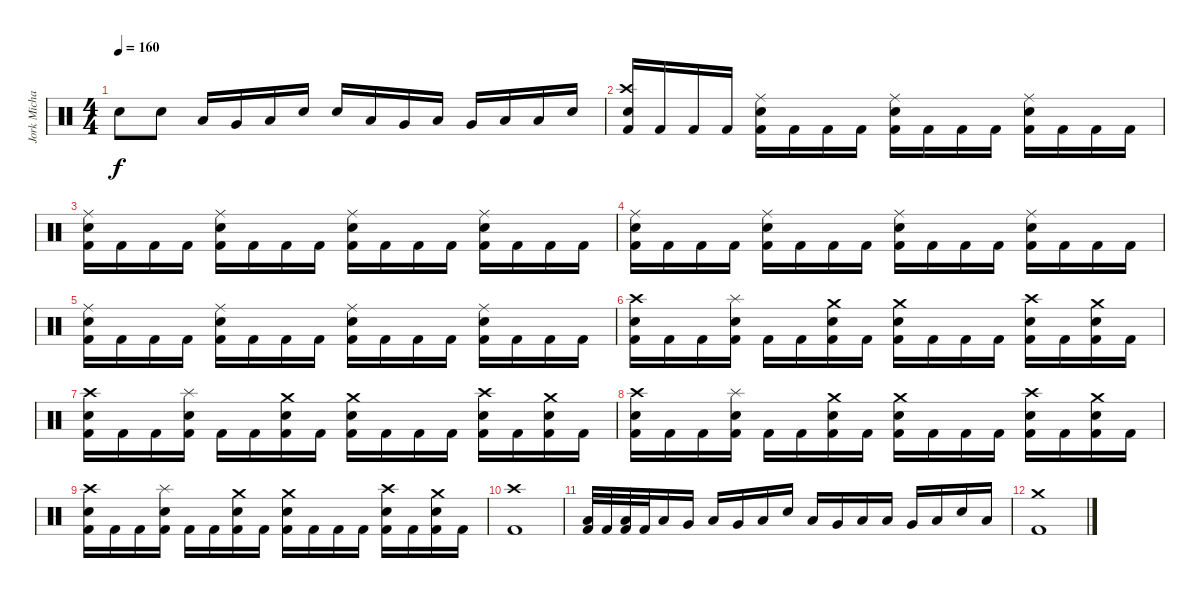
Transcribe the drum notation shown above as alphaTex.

\track ("Jork Michael" "Jork Micha") {instrument percussion}
\staff {score}
\articulation defaults
\ts (4 4)
\tempo 160
\clef neutral
\ks c "Electric Snare (hit)".8{dy f} "Electric Snare (hit)".8 "Low Floor Tom (hit)".16 "Very Low Tom (hit)".16 "Low Floor Tom (hit)".16 "Electric Snare (hit)".16 "Electric Snare (hit)".16 "Low Floor Tom (hit)".16 "Very Low Tom (hit)".16 "Low Tom (hit)".16 "Very Low Tom (hit)".16 "Low Tom (hit)".16 "Low Floor Tom (hit)".16 "Electric Snare (hit)".16
|
("Crash high (hit)" "Electric Snare (hit)" "Kick (hit) 2").16 "Kick (hit) 2".16 "Kick (hit) 2".16 "Kick (hit) 2".16 ("Ride (middle)" "Electric Snare (hit)" "Kick (hit) 2").16 "Kick (hit) 2".16 "Kick (hit) 2".16 "Kick (hit) 2".16 ("Ride (middle)" "Electric Snare (hit)" "Kick (hit) 2").16 "Kick (hit) 2".16 "Kick (hit) 2".16 "Kick (hit) 2".16 ("Ride (middle)" "Electric Snare (hit)" "Kick (hit) 2").16 "Kick (hit) 2".16 "Kick (hit) 2".16 "Kick (hit) 2".16 |
("Ride (middle)" "Electric Snare (hit)" "Kick (hit) 2").16 "Kick (hit) 2".16 "Kick (hit) 2".16 "Kick (hit) 2".16 ("Ride (middle)" "Electric Snare (hit)" "Kick (hit) 2").16 "Kick (hit) 2".16 "Kick (hit) 2".16 "Kick (hit) 2".16 ("Ride (middle)" "Electric Snare (hit)" "Kick (hit) 2").16 "Kick (hit) 2".16 "Kick (hit) 2".16 "Kick (hit) 2".16 ("Ride (middle)" "Electric Snare (hit)" "Kick (hit) 2").16 "Kick (hit) 2".16 "Kick (hit) 2".16 "Kick (hit) 2".16 |
("Ride (middle)" "Electric Snare (hit)" "Kick (hit) 2").16 "Kick (hit) 2".16 "Kick (hit) 2".16 "Kick (hit) 2".16 ("Ride (middle)" "Electric Snare (hit)" "Kick (hit) 2").16 "Kick (hit) 2".16 "Kick (hit) 2".16 "Kick (hit) 2".16 ("Ride (middle)" "Electric Snare (hit)" "Kick (hit) 2").16 "Kick (hit) 2".16 "Kick (hit) 2".16 "Kick (hit) 2".16 ("Ride (middle)" "Electric Snare (hit)" "Kick (hit) 2").16 "Kick (hit) 2".16 "Kick (hit) 2".16 "Kick (hit) 2".16 |
("Ride (middle)" "Electric Snare (hit)" "Kick (hit) 2").16 "Kick (hit) 2".16 "Kick (hit) 2".16 "Kick (hit) 2".16 ("Ride (middle)" "Electric Snare (hit)" "Kick (hit) 2").16 "Kick (hit) 2".16 "Kick (hit) 2".16 "Kick (hit) 2".16 ("Ride (middle)" "Electric Snare (hit)" "Kick (hit) 2").16 "Kick (hit) 2".16 "Kick (hit) 2".16 "Kick (hit) 2".16 ("Ride (middle)" "Electric Snare (hit)" "Kick (hit) 2").16 "Kick (hit) 2".16 "Kick (hit) 2".16 "Kick (hit) 2".16 |
("Crash high (hit)" "Electric Snare (hit)" "Kick (hit) 2").16 "Kick (hit) 2".16 "Kick (hit) 2".16 ("Splash (hit)" "Electric Snare (hit)" "Kick (hit) 2").16 "Kick (hit) 2".16 "Kick (hit) 2".16 ("Crash medium (hit)" "Electric Snare (hit)" "Kick (hit) 2").16 "Kick (hit) 2".16 ("Crash medium (hit)" "Electric Snare (hit)" "Kick (hit) 2").16 "Kick (hit) 2".16 "Kick (hit) 2".16 "Kick (hit) 2".16 ("Crash high (hit)" "Electric Snare (hit)" "Kick (hit) 2").16 "Kick (hit) 2".16 ("Crash medium (hit)" "Electric Snare (hit)" "Kick (hit) 2").16 "Kick (hit) 2".16 |
("Crash high (hit)" "Electric Snare (hit)" "Kick (hit) 2").16 "Kick (hit) 2".16 "Kick (hit) 2".16 ("Splash (hit)" "Electric Snare (hit)" "Kick (hit) 2").16 "Kick (hit) 2".16 "Kick (hit) 2".16 ("Crash medium (hit)" "Electric Snare (hit)" "Kick (hit) 2").16 "Kick (hit) 2".16 ("Crash medium (hit)" "Electric Snare (hit)" "Kick (hit) 2").16 "Kick (hit) 2".16 "Kick (hit) 2".16 "Kick (hit) 2".16 ("Crash high (hit)" "Electric Snare (hit)" "Kick (hit) 2").16 "Kick (hit) 2".16 ("Crash medium (hit)" "Electric Snare (hit)" "Kick (hit) 2").16 "Kick (hit) 2".16 |
("Crash high (hit)" "Electric Snare (hit)" "Kick (hit) 2").16 "Kick (hit) 2".16 "Kick (hit) 2".16 ("Splash (hit)" "Electric Snare (hit)" "Kick (hit) 2").16 "Kick (hit) 2".16 "Kick (hit) 2".16 ("Crash medium (hit)" "Electric Snare (hit)" "Kick (hit) 2").16 "Kick (hit) 2".16 ("Crash medium (hit)" "Electric Snare (hit)" "Kick (hit) 2").16 "Kick (hit) 2".16 "Kick (hit) 2".16 "Kick (hit) 2".16 ("Crash high (hit)" "Electric Snare (hit)" "Kick (hit) 2").16 "Kick (hit) 2".16 ("Crash medium (hit)" "Electric Snare (hit)" "Kick (hit) 2").16 "Kick (hit) 2".16 |
("Crash high (hit)" "Electric Snare (hit)" "Kick (hit) 2").16 "Kick (hit) 2".16 "Kick (hit) 2".16 ("Splash (hit)" "Electric Snare (hit)" "Kick (hit) 2").16 "Kick (hit) 2".16 "Kick (hit) 2".16 ("Crash medium (hit)" "Electric Snare (hit)" "Kick (hit) 2").16 "Kick (hit) 2".16 ("Crash medium (hit)" "Electric Snare (hit)" "Kick (hit) 2").16 "Kick (hit) 2".16 "Kick (hit) 2".16 "Kick (hit) 2".16 ("Crash high (hit)" "Electric Snare (hit)" "Kick (hit) 2").16 "Kick (hit) 2".16 ("Crash medium (hit)" "Electric Snare (hit)" "Kick (hit) 2").16 "Kick (hit) 2".16 |
("Crash high (hit)" "Kick (hit) 2").1 |
("Low Floor Tom (hit)" "Kick (hit) 2").32 "Kick (hit) 2".32 ("Low Tom (hit)" "Kick (hit) 2").32 "Kick (hit) 2".32 "Low Floor Tom (hit)".16 "Very Low Tom (hit)".16 "Low Tom (hit)".16 "Very Low Tom (hit)".16 "Low Floor Tom (hit)".16 "Electric Snare (hit)".16 "Low Tom (hit)".16 "Very Low Tom (hit)".16 "Low Floor Tom (hit)".16 "Low Tom (hit)".16 "Very Low Tom (hit)".16 "Low Floor Tom (hit)".16 "Electric Snare (hit)".16 "Low Floor Tom (hit)".16 |
("Crash medium (hit)" "Kick (hit) 2").1
